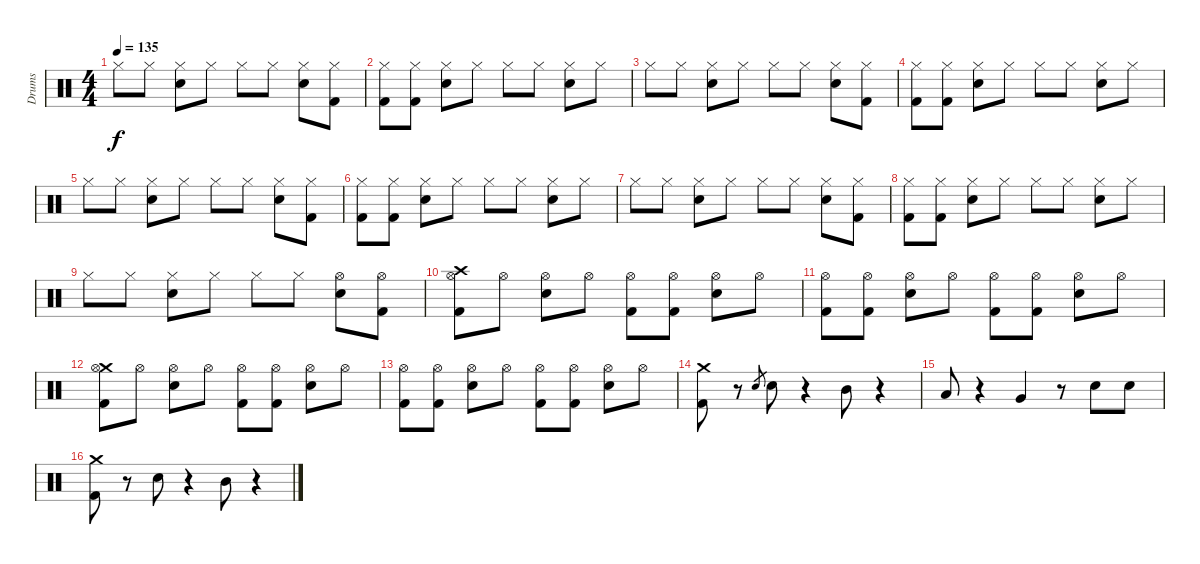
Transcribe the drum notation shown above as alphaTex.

\track ("Drums" "Drums") {instrument percussion}
\staff {score}
\articulation defaults
\ts (4 4)
\tempo 135
\clef neutral
\ks c "Hi-Hat (closed)".8{dy f} "Hi-Hat (closed)".8
("Hi-Hat (closed)" "Electric Snare (hit)").8 "Hi-Hat (closed)".8 "Hi-Hat (closed)".8 "Hi-Hat (closed)".8 ("Hi-Hat (closed)" "Electric Snare (hit)").8 ("Hi-Hat (closed)" "Kick (hit) 2").8 |
("Hi-Hat (closed)" "Kick (hit) 2").8 ("Hi-Hat (closed)" "Kick (hit) 2").8 ("Hi-Hat (closed)" "Electric Snare (hit)").8 "Hi-Hat (closed)".8 "Hi-Hat (closed)".8 "Hi-Hat (closed)".8 ("Hi-Hat (closed)" "Electric Snare (hit)").8 "Hi-Hat (closed)".8 |
"Hi-Hat (closed)".8 "Hi-Hat (closed)".8 ("Hi-Hat (closed)" "Electric Snare (hit)").8 "Hi-Hat (closed)".8 "Hi-Hat (closed)".8 "Hi-Hat (closed)".8 ("Hi-Hat (closed)" "Electric Snare (hit)").8 ("Hi-Hat (closed)" "Kick (hit) 2").8 |
("Hi-Hat (closed)" "Kick (hit) 2").8 ("Hi-Hat (closed)" "Kick (hit) 2").8 ("Hi-Hat (closed)" "Electric Snare (hit)").8 "Hi-Hat (closed)".8 "Hi-Hat (closed)".8 "Hi-Hat (closed)".8 ("Hi-Hat (closed)" "Electric Snare (hit)").8 "Hi-Hat (closed)".8 |
"Hi-Hat (closed)".8 "Hi-Hat (closed)".8 ("Hi-Hat (closed)" "Electric Snare (hit)").8 "Hi-Hat (closed)".8 "Hi-Hat (closed)".8 "Hi-Hat (closed)".8 ("Hi-Hat (closed)" "Electric Snare (hit)").8 ("Hi-Hat (closed)" "Kick (hit) 2").8 |
("Hi-Hat (closed)" "Kick (hit) 2").8 ("Hi-Hat (closed)" "Kick (hit) 2").8 ("Hi-Hat (closed)" "Electric Snare (hit)").8 "Hi-Hat (closed)".8 "Hi-Hat (closed)".8 "Hi-Hat (closed)".8 ("Hi-Hat (closed)" "Electric Snare (hit)").8 "Hi-Hat (closed)".8 |
"Hi-Hat (closed)".8 "Hi-Hat (closed)".8 ("Hi-Hat (closed)" "Electric Snare (hit)").8 "Hi-Hat (closed)".8 "Hi-Hat (closed)".8 "Hi-Hat (closed)".8 ("Hi-Hat (closed)" "Electric Snare (hit)").8 ("Hi-Hat (closed)" "Kick (hit) 2").8 |
("Hi-Hat (closed)" "Kick (hit) 2").8 ("Hi-Hat (closed)" "Kick (hit) 2").8 ("Hi-Hat (closed)" "Electric Snare (hit)").8 "Hi-Hat (closed)".8 "Hi-Hat (closed)".8 "Hi-Hat (closed)".8 ("Hi-Hat (closed)" "Electric Snare (hit)").8 "Hi-Hat (closed)".8 |
"Hi-Hat (closed)".8 "Hi-Hat (closed)".8 ("Hi-Hat (closed)" "Electric Snare (hit)").8 "Hi-Hat (closed)".8 "Hi-Hat (closed)".8 "Hi-Hat (closed)".8 ("Hi-Hat (open)" "Electric Snare (hit)").8 ("Hi-Hat (open)" "Kick (hit) 2").8 |
("Crash high (hit)" "Hi-Hat (open)" "Kick (hit) 2").8 "Hi-Hat (open)".8 ("Hi-Hat (open)" "Electric Snare (hit)").8 "Hi-Hat (open)".8 ("Hi-Hat (open)" "Kick (hit) 2").8 ("Hi-Hat (open)" "Kick (hit) 2").8 ("Hi-Hat (open)" "Electric Snare (hit)").8 "Hi-Hat (open)".8 |
("Hi-Hat (open)" "Kick (hit) 2").8 ("Hi-Hat (open)" "Kick (hit) 2").8 ("Hi-Hat (open)" "Electric Snare (hit)").8 "Hi-Hat (open)".8 ("Hi-Hat (open)" "Kick (hit) 2").8 ("Hi-Hat (open)" "Kick (hit) 2").8 ("Hi-Hat (open)" "Electric Snare (hit)").8 "Hi-Hat (open)".8 |
("Crash medium (hit)" "Hi-Hat (open)" "Kick (hit) 2").8 "Hi-Hat (open)".8 ("Hi-Hat (open)" "Electric Snare (hit)").8 "Hi-Hat (open)".8 ("Hi-Hat (open)" "Kick (hit) 2").8 ("Hi-Hat (open)" "Kick (hit) 2").8 ("Hi-Hat (open)" "Electric Snare (hit)").8 "Hi-Hat (open)".8 |
("Hi-Hat (open)" "Kick (hit) 2").8 ("Hi-Hat (open)" "Kick (hit) 2").8 ("Hi-Hat (open)" "Electric Snare (hit)").8 "Hi-Hat (open)".8 ("Hi-Hat (open)" "Kick (hit) 2").8 ("Hi-Hat (open)" "Kick (hit) 2").8 ("Hi-Hat (open)" "Electric Snare (hit)").8 "Hi-Hat (open)".8 |
("Crash medium (hit)" "Kick (hit) 2").8 r.8 "Electric Snare (hit)".8{gr} "Electric Snare (hit)".8 r.4 "Mid Tom (hit)".8 r.4 |
"Low Tom (hit)".8 r.4 "Very Low Tom (hit)".4 r.8 "Electric Snare (hit)".8 "Electric Snare (hit)".8 |
("Crash medium (hit)" "Kick (hit) 2").8 r.8 "Electric Snare (hit)".8 r.4 "Mid Tom (hit)".8 r.4
